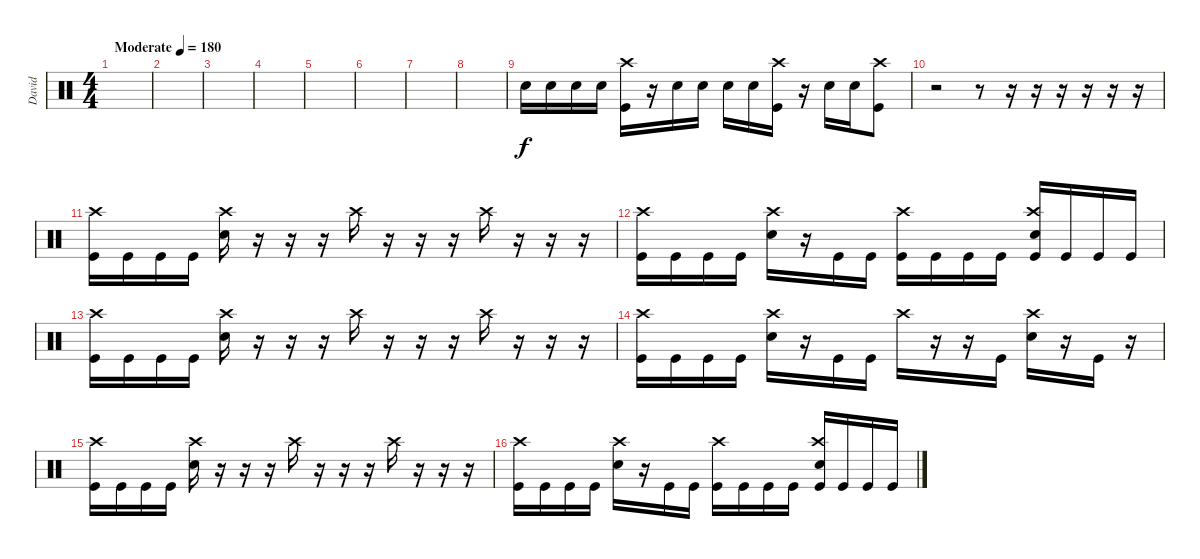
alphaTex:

\track ("David" "David") {instrument percussion}
\staff {score}
\articulation defaults
\ts (4 4)
\tempo (180 "Moderate")
\clef neutral
\ks c
|
|
|
|
|
|
|
|
"Electric Snare (hit)".16 "Electric Snare (hit)".16 "Electric Snare (hit)".16 "Electric Snare (hit)".16 ("Crash high (hit)" "Kick (hit)").16 r.16 "Electric Snare (hit)".16 "Electric Snare (hit)".16 "Electric Snare (hit)".16 "Electric Snare (hit)".16 ("Crash high (hit)" "Kick (hit)").16 r.16 "Electric Snare (hit)".16 "Electric Snare (hit)".16 ("Crash high (hit)" "Kick (hit)").8 |
r.2 r.8 r.16 r.16 r.16 r.16 r.16 r.16 |
("Crash high (hit)" "Kick (hit)").16 "Kick (hit)".16 "Kick (hit)".16 "Kick (hit)".16 ("Crash high (hit)" "Electric Snare (hit)").16 r.16 r.16 r.16 "Crash high (hit)".16 r.16 r.16 r.16 "Crash high (hit)".16 r.16 r.16 r.16 |
("Crash high (hit)" "Kick (hit)").16 "Kick (hit)".16 "Kick (hit)".16 "Kick (hit)".16 ("Crash high (hit)" "Electric Snare (hit)").16 r.16 "Kick (hit)".16 "Kick (hit)".16 ("Crash high (hit)" "Kick (hit)").16 "Kick (hit)".16 "Kick (hit)".16 "Kick (hit)".16 ("Crash high (hit)" "Electric Snare (hit)" "Kick (hit)").16 "Kick (hit)".16 "Kick (hit)".16 "Kick (hit)".16 |
("Crash high (hit)" "Kick (hit)").16 "Kick (hit)".16 "Kick (hit)".16 "Kick (hit)".16 ("Crash high (hit)" "Electric Snare (hit)").16 r.16 r.16 r.16 "Crash high (hit)".16 r.16 r.16 r.16 "Crash high (hit)".16 r.16 r.16 r.16 |
("Crash high (hit)" "Kick (hit)").16 "Kick (hit)".16 "Kick (hit)".16 "Kick (hit)".16 ("Crash high (hit)" "Electric Snare (hit)").16 r.16 "Kick (hit)".16 "Kick (hit)".16 "Crash high (hit)".16 r.16 r.16 "Kick (hit)".16 ("Crash high (hit)" "Electric Snare (hit)").16 r.16 "Kick (hit)".16 r.16 |
("Crash high (hit)" "Kick (hit)").16 "Kick (hit)".16 "Kick (hit)".16 "Kick (hit)".16 ("Crash high (hit)" "Electric Snare (hit)").16 r.16 r.16 r.16 "Crash high (hit)".16 r.16 r.16 r.16 "Crash high (hit)".16 r.16 r.16 r.16 |
("Crash high (hit)" "Kick (hit)").16 "Kick (hit)".16 "Kick (hit)".16 "Kick (hit)".16 ("Crash high (hit)" "Electric Snare (hit)").16 r.16 "Kick (hit)".16 "Kick (hit)".16 ("Crash high (hit)" "Kick (hit)").16 "Kick (hit)".16 "Kick (hit)".16 "Kick (hit)".16 ("Crash high (hit)" "Electric Snare (hit)" "Kick (hit)").16 "Kick (hit)".16 "Kick (hit)".16 "Kick (hit)".16
